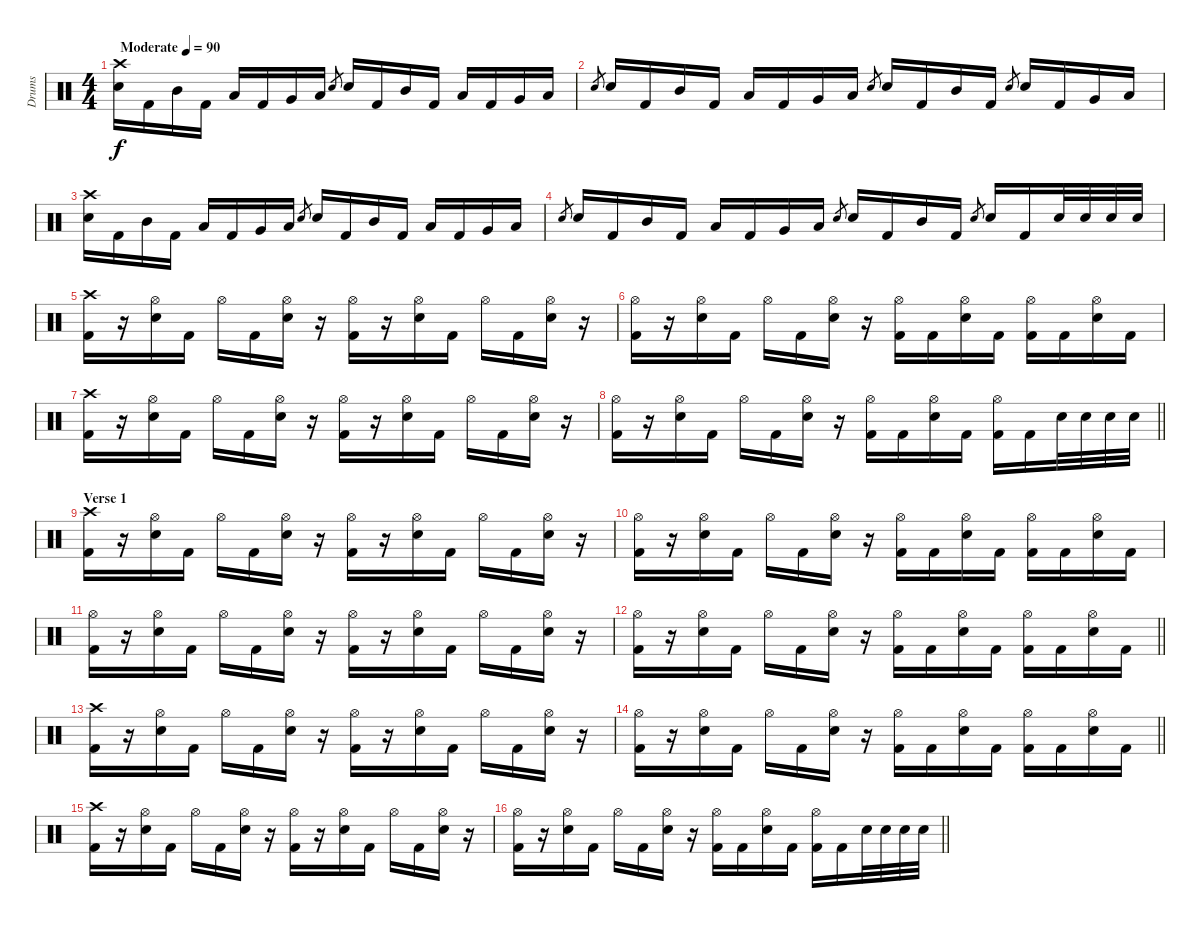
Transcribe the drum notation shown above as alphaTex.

\track ("Drums" "Drums") {instrument percussion}
\staff {score}
\articulation defaults
\ts (4 4)
\tempo (90 "Moderate")
\clef neutral
\ks c
("Crash high (hit)" "Snare (hit) 2").16{dy f} "Kick (hit) 2".16 "Mid Tom (hit)".16 "Kick (hit) 2".16 "Low Tom (hit)".16 "Kick (hit) 2".16 "Very Low Tom (hit)".16 "Low Floor Tom (hit)".16 "Snare (hit) 2".8{gr} "Snare (hit) 2".16 "Kick (hit) 2".16 "Mid Tom (hit)".16 "Kick (hit) 2".16 "Low Tom (hit)".16 "Kick (hit) 2".16 "Very Low Tom (hit)".16 "Low Floor Tom (hit)".16 |
"Snare (hit) 2".8{gr} "Snare (hit) 2".16 "Kick (hit) 2".16 "Mid Tom (hit)".16 "Kick (hit) 2".16 "Low Tom (hit)".16 "Kick (hit) 2".16 "Very Low Tom (hit)".16 "Low Floor Tom (hit)".16 "Snare (hit) 2".8{gr} "Snare (hit) 2".16 "Kick (hit) 2".16 "Mid Tom (hit)".16 "Kick (hit) 2".16 "Snare (hit) 2".8{gr} "Snare (hit) 2".16 "Kick (hit) 2".16 "Very Low Tom (hit)".16 "Low Floor Tom (hit)".16 |
("Crash high (hit)" "Snare (hit) 2").16 "Kick (hit) 2".16 "Mid Tom (hit)".16 "Kick (hit) 2".16 "Low Tom (hit)".16 "Kick (hit) 2".16 "Very Low Tom (hit)".16 "Low Floor Tom (hit)".16 "Snare (hit) 2".8{gr} "Snare (hit) 2".16 "Kick (hit) 2".16 "Mid Tom (hit)".16 "Kick (hit) 2".16 "Low Tom (hit)".16 "Kick (hit) 2".16 "Very Low Tom (hit)".16 "Low Floor Tom (hit)".16 |
"Snare (hit) 2".8{gr} "Snare (hit) 2".16 "Kick (hit) 2".16 "Mid Tom (hit)".16 "Kick (hit) 2".16 "Low Tom (hit)".16 "Kick (hit) 2".16 "Very Low Tom (hit)".16 "Low Floor Tom (hit)".16 "Snare (hit) 2".8{gr} "Snare (hit) 2".16 "Kick (hit) 2".16 "Mid Tom (hit)".16 "Kick (hit) 2".16 "Snare (hit) 2".8{gr} "Snare (hit) 2".16 "Kick (hit) 2".16 "Snare (hit) 2".32 "Snare (hit) 2".32 "Snare (hit) 2".32 "Snare (hit) 2".32 |
("Crash high (hit)" "Kick (hit) 2").16 r.16 ("Hi-Hat (open)" "Snare (hit) 2").16 "Kick (hit) 2".16 "Hi-Hat (open)".16 "Kick (hit) 2".16 ("Hi-Hat (open)" "Snare (hit) 2").16 r.16 ("Hi-Hat (open)" "Kick (hit) 2").16 r.16 ("Hi-Hat (open)" "Snare (hit) 2").16 "Kick (hit) 2".16 "Hi-Hat (open)".16 "Kick (hit) 2".16 ("Hi-Hat (open)" "Snare (hit) 2").16 r.16 |
("Hi-Hat (open)" "Kick (hit) 2").16 r.16 ("Hi-Hat (open)" "Snare (hit) 2").16 "Kick (hit) 2".16 "Hi-Hat (open)".16 "Kick (hit) 2".16 ("Hi-Hat (open)" "Snare (hit) 2").16 r.16 ("Hi-Hat (open)" "Kick (hit) 2").16 "Kick (hit) 2".16 ("Hi-Hat (open)" "Snare (hit) 2").16 "Kick (hit) 2".16 ("Hi-Hat (open)" "Kick (hit) 2").16 "Kick (hit) 2".16 ("Hi-Hat (open)" "Snare (hit) 2").16 "Kick (hit) 2".16 |
("Crash high (hit)" "Kick (hit) 2").16 r.16 ("Hi-Hat (open)" "Snare (hit) 2").16 "Kick (hit) 2".16 "Hi-Hat (open)".16 "Kick (hit) 2".16 ("Hi-Hat (open)" "Snare (hit) 2").16 r.16 ("Hi-Hat (open)" "Kick (hit) 2").16 r.16 ("Hi-Hat (open)" "Snare (hit) 2").16 "Kick (hit) 2".16 "Hi-Hat (open)".16 "Kick (hit) 2".16 ("Hi-Hat (open)" "Snare (hit) 2").16 r.16 |
\barLineRight lightlight
("Hi-Hat (open)" "Kick (hit) 2").16 r.16 ("Hi-Hat (open)" "Snare (hit) 2").16 "Kick (hit) 2".16 "Hi-Hat (open)".16 "Kick (hit) 2".16 ("Hi-Hat (open)" "Snare (hit) 2").16 r.16 ("Hi-Hat (open)" "Kick (hit) 2").16 "Kick (hit) 2".16 ("Hi-Hat (open)" "Snare (hit) 2").16 "Kick (hit) 2".16 ("Hi-Hat (open)" "Kick (hit) 2").16 "Kick (hit) 2".16 "Snare (hit) 2".32 "Snare (hit) 2".32 "Snare (hit) 2".32 "Snare (hit) 2".32 |
\section ("" "Verse 1")
("Crash high (hit)" "Kick (hit) 2").16 r.16 ("Hi-Hat (open)" "Snare (hit) 2").16 "Kick (hit) 2".16 "Hi-Hat (open)".16 "Kick (hit) 2".16 ("Hi-Hat (open)" "Snare (hit) 2").16 r.16 ("Hi-Hat (open)" "Kick (hit) 2").16 r.16 ("Hi-Hat (open)" "Snare (hit) 2").16 "Kick (hit) 2".16 "Hi-Hat (open)".16 "Kick (hit) 2".16 ("Hi-Hat (open)" "Snare (hit) 2").16 r.16 |
("Hi-Hat (open)" "Kick (hit) 2").16 r.16 ("Hi-Hat (open)" "Snare (hit) 2").16 "Kick (hit) 2".16 "Hi-Hat (open)".16 "Kick (hit) 2".16 ("Hi-Hat (open)" "Snare (hit) 2").16 r.16 ("Hi-Hat (open)" "Kick (hit) 2").16 "Kick (hit) 2".16 ("Hi-Hat (open)" "Snare (hit) 2").16 "Kick (hit) 2".16 ("Hi-Hat (open)" "Kick (hit) 2").16 "Kick (hit) 2".16 ("Hi-Hat (open)" "Snare (hit) 2").16 "Kick (hit) 2".16 |
("Hi-Hat (open)" "Kick (hit) 2").16 r.16 ("Hi-Hat (open)" "Snare (hit) 2").16 "Kick (hit) 2".16 "Hi-Hat (open)".16 "Kick (hit) 2".16 ("Hi-Hat (open)" "Snare (hit) 2").16 r.16 ("Hi-Hat (open)" "Kick (hit) 2").16 r.16 ("Hi-Hat (open)" "Snare (hit) 2").16 "Kick (hit) 2".16 "Hi-Hat (open)".16 "Kick (hit) 2".16 ("Hi-Hat (open)" "Snare (hit) 2").16 r.16 |
\barLineRight lightlight
("Hi-Hat (open)" "Kick (hit) 2").16 r.16 ("Hi-Hat (open)" "Snare (hit) 2").16 "Kick (hit) 2".16 "Hi-Hat (open)".16 "Kick (hit) 2".16 ("Hi-Hat (open)" "Snare (hit) 2").16 r.16 ("Hi-Hat (open)" "Kick (hit) 2").16 "Kick (hit) 2".16 ("Hi-Hat (open)" "Snare (hit) 2").16 "Kick (hit) 2".16 ("Hi-Hat (open)" "Kick (hit) 2").16 "Kick (hit) 2".16 ("Hi-Hat (open)" "Snare (hit) 2").16 "Kick (hit) 2".16 |
("Crash high (hit)" "Kick (hit) 2").16 r.16 ("Hi-Hat (open)" "Snare (hit) 2").16 "Kick (hit) 2".16 "Hi-Hat (open)".16 "Kick (hit) 2".16 ("Hi-Hat (open)" "Snare (hit) 2").16 r.16 ("Hi-Hat (open)" "Kick (hit) 2").16 r.16 ("Hi-Hat (open)" "Snare (hit) 2").16 "Kick (hit) 2".16 "Hi-Hat (open)".16 "Kick (hit) 2".16 ("Hi-Hat (open)" "Snare (hit) 2").16 r.16 |
\barLineRight lightlight
("Hi-Hat (open)" "Kick (hit) 2").16 r.16 ("Hi-Hat (open)" "Snare (hit) 2").16 "Kick (hit) 2".16 "Hi-Hat (open)".16 "Kick (hit) 2".16 ("Hi-Hat (open)" "Snare (hit) 2").16 r.16 ("Hi-Hat (open)" "Kick (hit) 2").16 "Kick (hit) 2".16 ("Hi-Hat (open)" "Snare (hit) 2").16 "Kick (hit) 2".16 ("Hi-Hat (open)" "Kick (hit) 2").16 "Kick (hit) 2".16 ("Hi-Hat (open)" "Snare (hit) 2").16 "Kick (hit) 2".16 |
("Crash high (hit)" "Kick (hit) 2").16 r.16 ("Hi-Hat (open)" "Snare (hit) 2").16 "Kick (hit) 2".16 "Hi-Hat (open)".16 "Kick (hit) 2".16 ("Hi-Hat (open)" "Snare (hit) 2").16 r.16 ("Hi-Hat (open)" "Kick (hit) 2").16 r.16 ("Hi-Hat (open)" "Snare (hit) 2").16 "Kick (hit) 2".16 "Hi-Hat (open)".16 "Kick (hit) 2".16 ("Hi-Hat (open)" "Snare (hit) 2").16 r.16 |
\barLineRight lightlight
("Hi-Hat (open)" "Kick (hit) 2").16 r.16 ("Hi-Hat (open)" "Snare (hit) 2").16 "Kick (hit) 2".16 "Hi-Hat (open)".16 "Kick (hit) 2".16 ("Hi-Hat (open)" "Snare (hit) 2").16 r.16 ("Hi-Hat (open)" "Kick (hit) 2").16 "Kick (hit) 2".16 ("Hi-Hat (open)" "Snare (hit) 2").16 "Kick (hit) 2".16 ("Hi-Hat (open)" "Kick (hit) 2").16 "Kick (hit) 2".16 "Snare (hit) 2".32 "Snare (hit) 2".32 "Snare (hit) 2".32 "Snare (hit) 2".32
